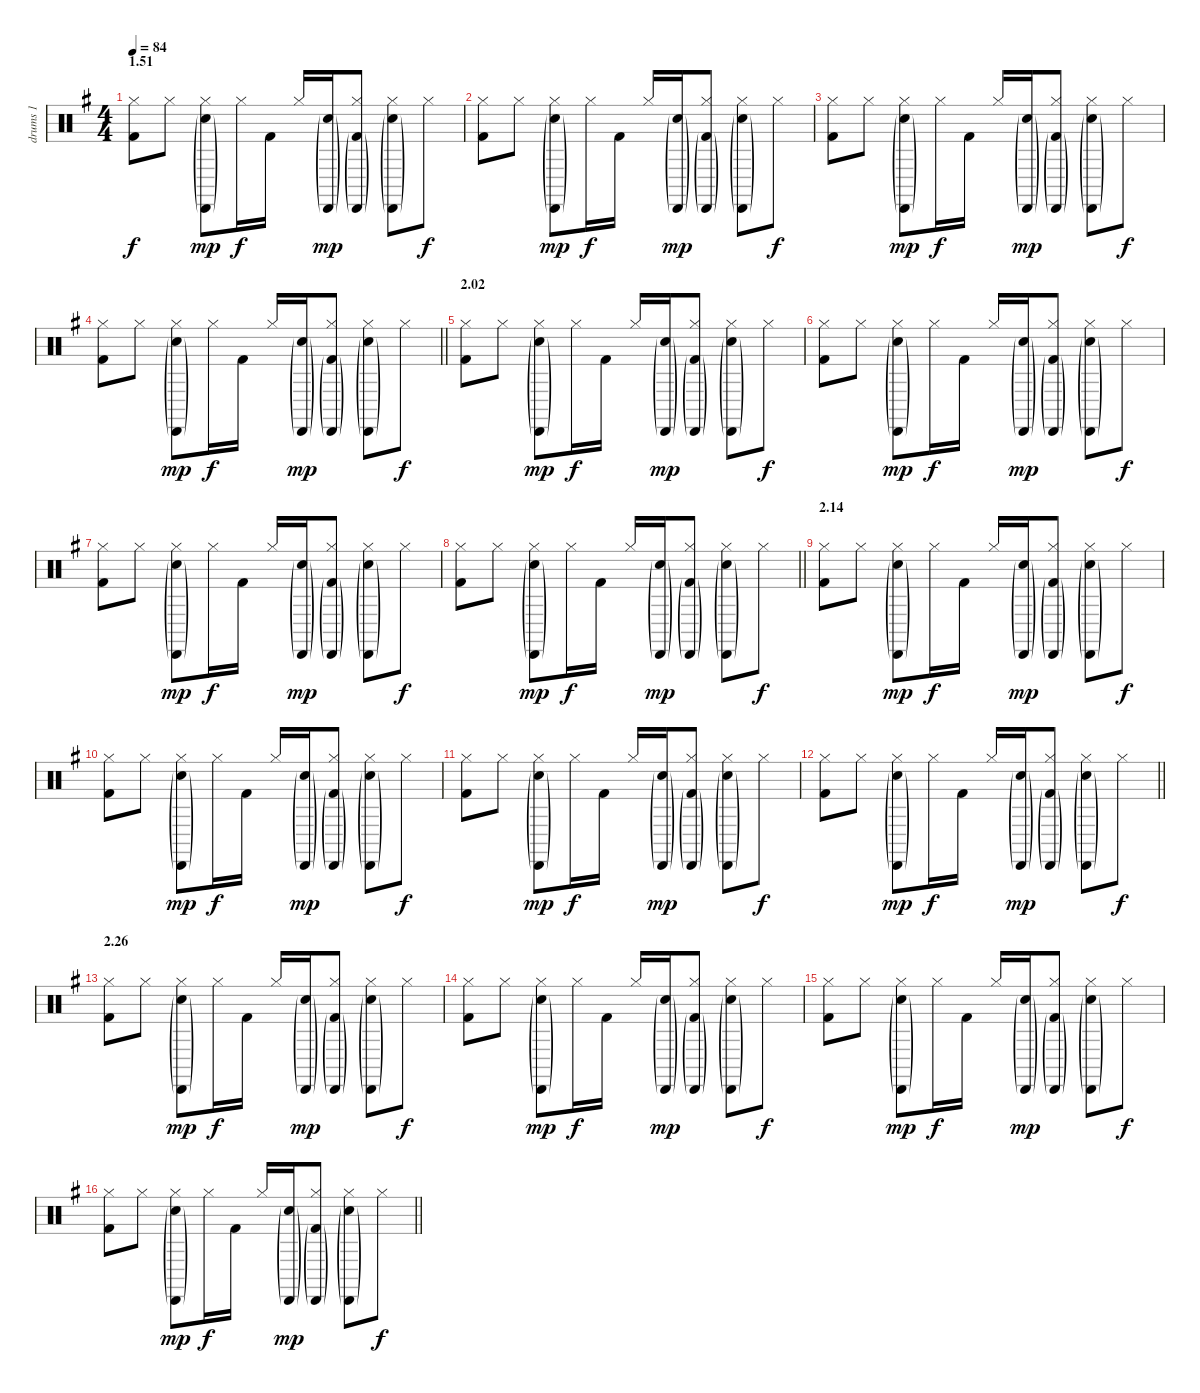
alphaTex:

\track ("drums 1" "drums 1") {instrument percussion}
\staff {score}
\articulation defaults
\ts (4 4)
\section ("" "1.51")
\tempo 84
\clef neutral
\ks g
("Hi-Hat (closed)" "Kick (hit) 2").8{dy f} "Hi-Hat (closed)".8 ("Cabasa (hit)"{g} "Hi-Hat (closed)" "Electric Snare (hit)"{g}).8{dy mp} "Hi-Hat (closed)".16{dy f} "Kick (hit) 2".16 "Hi-Hat (closed)".16 ("Cabasa (hit)"{g} "Electric Snare (hit)"{g}).16{dy mp} ("Cabasa (hit)"{g} "Hi-Hat (closed)" "Kick (hit) 2"{g}).8 ("Cabasa (hit)"{g} "Hi-Hat (closed)" "Electric Snare (hit)"{g}).8 "Hi-Hat (closed)".8{dy f} |
("Hi-Hat (closed)" "Kick (hit) 2").8 "Hi-Hat (closed)".8 ("Cabasa (hit)"{g} "Hi-Hat (closed)" "Electric Snare (hit)"{g}).8{dy mp} "Hi-Hat (closed)".16{dy f} "Kick (hit) 2".16 "Hi-Hat (closed)".16 ("Cabasa (hit)"{g} "Electric Snare (hit)"{g}).16{dy mp} ("Cabasa (hit)"{g} "Hi-Hat (closed)" "Kick (hit) 2"{g}).8 ("Cabasa (hit)"{g} "Hi-Hat (closed)" "Electric Snare (hit)"{g}).8 "Hi-Hat (closed)".8{dy f} |
("Hi-Hat (closed)" "Kick (hit) 2").8 "Hi-Hat (closed)".8 ("Cabasa (hit)"{g} "Hi-Hat (closed)" "Electric Snare (hit)"{g}).8{dy mp} "Hi-Hat (closed)".16{dy f} "Kick (hit) 2".16 "Hi-Hat (closed)".16 ("Cabasa (hit)"{g} "Electric Snare (hit)"{g}).16{dy mp} ("Cabasa (hit)"{g} "Hi-Hat (closed)" "Kick (hit) 2"{g}).8 ("Cabasa (hit)"{g} "Hi-Hat (closed)" "Electric Snare (hit)"{g}).8 "Hi-Hat (closed)".8{dy f} |
\barLineRight lightlight
("Hi-Hat (closed)" "Kick (hit) 2").8 "Hi-Hat (closed)".8 ("Cabasa (hit)"{g} "Hi-Hat (closed)" "Electric Snare (hit)"{g}).8{dy mp} "Hi-Hat (closed)".16{dy f} "Kick (hit) 2".16 "Hi-Hat (closed)".16 ("Cabasa (hit)"{g} "Electric Snare (hit)"{g}).16{dy mp} ("Cabasa (hit)"{g} "Hi-Hat (closed)" "Kick (hit) 2"{g}).8 ("Cabasa (hit)"{g} "Hi-Hat (closed)" "Electric Snare (hit)"{g}).8 "Hi-Hat (closed)".8{dy f} |
\section ("" "2.02")
("Hi-Hat (closed)" "Kick (hit) 2").8 "Hi-Hat (closed)".8 ("Cabasa (hit)"{g} "Hi-Hat (closed)" "Electric Snare (hit)"{g}).8{dy mp} "Hi-Hat (closed)".16{dy f} "Kick (hit) 2".16 "Hi-Hat (closed)".16 ("Cabasa (hit)"{g} "Electric Snare (hit)"{g}).16{dy mp} ("Cabasa (hit)"{g} "Hi-Hat (closed)" "Kick (hit) 2"{g}).8 ("Cabasa (hit)"{g} "Hi-Hat (closed)" "Electric Snare (hit)"{g}).8 "Hi-Hat (closed)".8{dy f} |
("Hi-Hat (closed)" "Kick (hit) 2").8 "Hi-Hat (closed)".8 ("Cabasa (hit)"{g} "Hi-Hat (closed)" "Electric Snare (hit)"{g}).8{dy mp} "Hi-Hat (closed)".16{dy f} "Kick (hit) 2".16 "Hi-Hat (closed)".16 ("Cabasa (hit)"{g} "Electric Snare (hit)"{g}).16{dy mp} ("Cabasa (hit)"{g} "Hi-Hat (closed)" "Kick (hit) 2"{g}).8 ("Cabasa (hit)"{g} "Hi-Hat (closed)" "Electric Snare (hit)"{g}).8 "Hi-Hat (closed)".8{dy f} |
("Hi-Hat (closed)" "Kick (hit) 2").8 "Hi-Hat (closed)".8 ("Cabasa (hit)"{g} "Hi-Hat (closed)" "Electric Snare (hit)"{g}).8{dy mp} "Hi-Hat (closed)".16{dy f} "Kick (hit) 2".16 "Hi-Hat (closed)".16 ("Cabasa (hit)"{g} "Electric Snare (hit)"{g}).16{dy mp} ("Cabasa (hit)"{g} "Hi-Hat (closed)" "Kick (hit) 2"{g}).8 ("Cabasa (hit)"{g} "Hi-Hat (closed)" "Electric Snare (hit)"{g}).8 "Hi-Hat (closed)".8{dy f} |
\barLineRight lightlight
("Hi-Hat (closed)" "Kick (hit) 2").8 "Hi-Hat (closed)".8 ("Cabasa (hit)"{g} "Hi-Hat (closed)" "Electric Snare (hit)"{g}).8{dy mp} "Hi-Hat (closed)".16{dy f} "Kick (hit) 2".16 "Hi-Hat (closed)".16 ("Cabasa (hit)"{g} "Electric Snare (hit)"{g}).16{dy mp} ("Cabasa (hit)"{g} "Hi-Hat (closed)" "Kick (hit) 2"{g}).8 ("Cabasa (hit)"{g} "Hi-Hat (closed)" "Electric Snare (hit)"{g}).8 "Hi-Hat (closed)".8{dy f} |
\section ("" "2.14")
("Hi-Hat (closed)" "Kick (hit) 2").8 "Hi-Hat (closed)".8 ("Cabasa (hit)"{g} "Hi-Hat (closed)" "Electric Snare (hit)"{g}).8{dy mp} "Hi-Hat (closed)".16{dy f} "Kick (hit) 2".16 "Hi-Hat (closed)".16 ("Cabasa (hit)"{g} "Electric Snare (hit)"{g}).16{dy mp} ("Cabasa (hit)"{g} "Hi-Hat (closed)" "Kick (hit) 2"{g}).8 ("Cabasa (hit)"{g} "Hi-Hat (closed)" "Electric Snare (hit)"{g}).8 "Hi-Hat (closed)".8{dy f} |
("Hi-Hat (closed)" "Kick (hit) 2").8 "Hi-Hat (closed)".8 ("Cabasa (hit)"{g} "Hi-Hat (closed)" "Electric Snare (hit)"{g}).8{dy mp} "Hi-Hat (closed)".16{dy f} "Kick (hit) 2".16 "Hi-Hat (closed)".16 ("Cabasa (hit)"{g} "Electric Snare (hit)"{g}).16{dy mp} ("Cabasa (hit)"{g} "Hi-Hat (closed)" "Kick (hit) 2"{g}).8 ("Cabasa (hit)"{g} "Hi-Hat (closed)" "Electric Snare (hit)"{g}).8 "Hi-Hat (closed)".8{dy f} |
("Hi-Hat (closed)" "Kick (hit) 2").8 "Hi-Hat (closed)".8 ("Cabasa (hit)"{g} "Hi-Hat (closed)" "Electric Snare (hit)"{g}).8{dy mp} "Hi-Hat (closed)".16{dy f} "Kick (hit) 2".16 "Hi-Hat (closed)".16 ("Cabasa (hit)"{g} "Electric Snare (hit)"{g}).16{dy mp} ("Cabasa (hit)"{g} "Hi-Hat (closed)" "Kick (hit) 2"{g}).8 ("Cabasa (hit)"{g} "Hi-Hat (closed)" "Electric Snare (hit)"{g}).8 "Hi-Hat (closed)".8{dy f} |
\barLineRight lightlight
("Hi-Hat (closed)" "Kick (hit) 2").8 "Hi-Hat (closed)".8 ("Cabasa (hit)"{g} "Hi-Hat (closed)" "Electric Snare (hit)"{g}).8{dy mp} "Hi-Hat (closed)".16{dy f} "Kick (hit) 2".16 "Hi-Hat (closed)".16 ("Cabasa (hit)"{g} "Electric Snare (hit)"{g}).16{dy mp} ("Cabasa (hit)"{g} "Hi-Hat (closed)" "Kick (hit) 2"{g}).8 ("Cabasa (hit)"{g} "Hi-Hat (closed)" "Electric Snare (hit)"{g}).8 "Hi-Hat (closed)".8{dy f} |
\section ("" "2.26")
("Hi-Hat (closed)" "Kick (hit) 2").8 "Hi-Hat (closed)".8 ("Cabasa (hit)"{g} "Hi-Hat (closed)" "Electric Snare (hit)"{g}).8{dy mp} "Hi-Hat (closed)".16{dy f} "Kick (hit) 2".16 "Hi-Hat (closed)".16 ("Cabasa (hit)"{g} "Electric Snare (hit)"{g}).16{dy mp} ("Cabasa (hit)"{g} "Hi-Hat (closed)" "Kick (hit) 2"{g}).8 ("Cabasa (hit)"{g} "Hi-Hat (closed)" "Electric Snare (hit)"{g}).8 "Hi-Hat (closed)".8{dy f} |
("Hi-Hat (closed)" "Kick (hit) 2").8 "Hi-Hat (closed)".8 ("Cabasa (hit)"{g} "Hi-Hat (closed)" "Electric Snare (hit)"{g}).8{dy mp} "Hi-Hat (closed)".16{dy f} "Kick (hit) 2".16 "Hi-Hat (closed)".16 ("Cabasa (hit)"{g} "Electric Snare (hit)"{g}).16{dy mp} ("Cabasa (hit)"{g} "Hi-Hat (closed)" "Kick (hit) 2"{g}).8 ("Cabasa (hit)"{g} "Hi-Hat (closed)" "Electric Snare (hit)"{g}).8 "Hi-Hat (closed)".8{dy f} |
("Hi-Hat (closed)" "Kick (hit) 2").8 "Hi-Hat (closed)".8 ("Cabasa (hit)"{g} "Hi-Hat (closed)" "Electric Snare (hit)"{g}).8{dy mp} "Hi-Hat (closed)".16{dy f} "Kick (hit) 2".16 "Hi-Hat (closed)".16 ("Cabasa (hit)"{g} "Electric Snare (hit)"{g}).16{dy mp} ("Cabasa (hit)"{g} "Hi-Hat (closed)" "Kick (hit) 2"{g}).8 ("Cabasa (hit)"{g} "Hi-Hat (closed)" "Electric Snare (hit)"{g}).8 "Hi-Hat (closed)".8{dy f} |
\barLineRight lightlight
("Hi-Hat (closed)" "Kick (hit) 2").8 "Hi-Hat (closed)".8 ("Cabasa (hit)"{g} "Hi-Hat (closed)" "Electric Snare (hit)"{g}).8{dy mp} "Hi-Hat (closed)".16{dy f} "Kick (hit) 2".16 "Hi-Hat (closed)".16 ("Cabasa (hit)"{g} "Electric Snare (hit)"{g}).16{dy mp} ("Cabasa (hit)"{g} "Hi-Hat (closed)" "Kick (hit) 2"{g}).8 ("Cabasa (hit)"{g} "Hi-Hat (closed)" "Electric Snare (hit)"{g}).8 "Hi-Hat (closed)".8{dy f}
